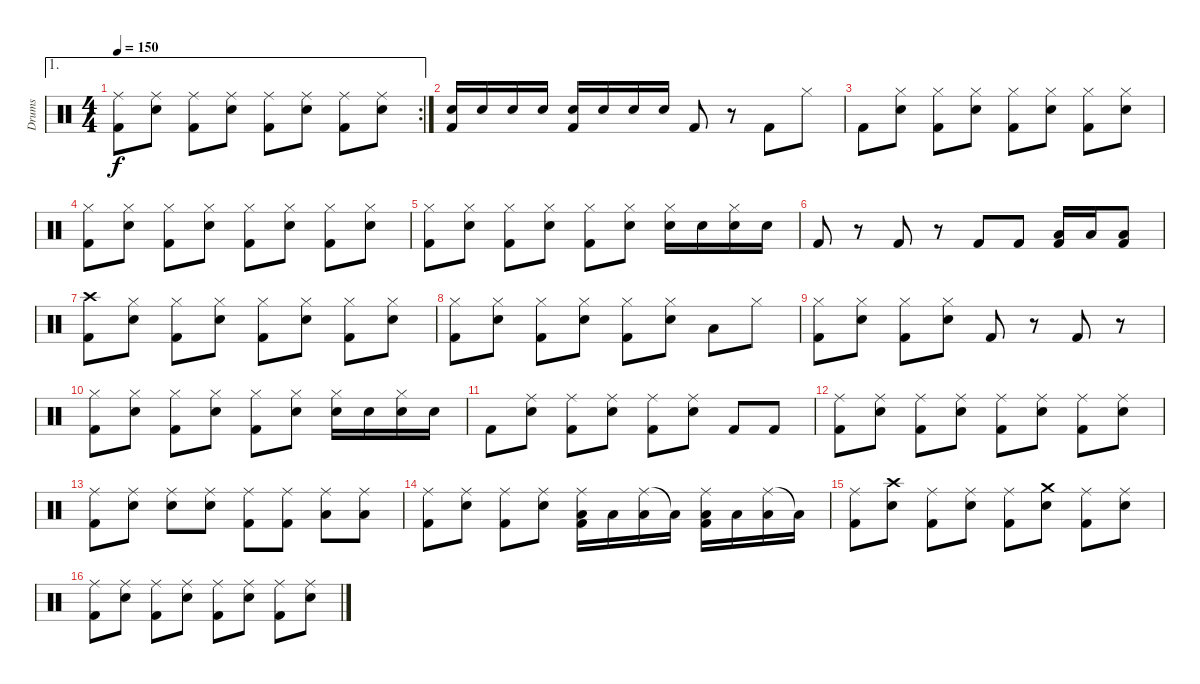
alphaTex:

\track ("Drums" "Drums") {instrument percussion}
\staff {score}
\articulation defaults
\ae 1
\rc 2
\ts (4 4)
\tempo 150
\clef neutral
\ks c
("Ride (middle)" "Kick (hit) 2").8{dy f} ("Ride (middle)" "Snare (hit) 2").8 ("Ride (middle)" "Kick (hit) 2").8 ("Ride (middle)" "Snare (hit) 2").8 ("Ride (middle)" "Kick (hit) 2").8 ("Ride (middle)" "Snare (hit) 2").8 ("Ride (middle)" "Kick (hit) 2").8 ("Ride (middle)" "Snare (hit) 2").8 |
("Snare (hit) 2" "Kick (hit) 2").16 "Snare (hit) 2".16 "Snare (hit) 2".16 "Snare (hit) 2".16 ("Snare (hit) 2" "Kick (hit) 2").16 "Snare (hit) 2".16 "Snare (hit) 2".16 "Snare (hit) 2".16 "Kick (hit) 2".8 r.8 "Kick (hit) 2".8 "Hi-Hat (closed)".8 |
"Kick (hit) 2".8 ("Hi-Hat (closed)" "Snare (hit) 2").8 ("Hi-Hat (closed)" "Kick (hit) 2").8 ("Hi-Hat (closed)" "Snare (hit) 2").8 ("Hi-Hat (closed)" "Kick (hit) 2").8 ("Hi-Hat (closed)" "Snare (hit) 2").8 ("Hi-Hat (closed)" "Kick (hit) 2").8 ("Hi-Hat (closed)" "Snare (hit) 2").8 |
("Hi-Hat (closed)" "Kick (hit) 2").8 ("Hi-Hat (closed)" "Snare (hit) 2").8 ("Hi-Hat (closed)" "Kick (hit) 2").8 ("Hi-Hat (closed)" "Snare (hit) 2").8 ("Hi-Hat (closed)" "Kick (hit) 2").8 ("Hi-Hat (closed)" "Snare (hit) 2").8 ("Hi-Hat (closed)" "Kick (hit) 2").8 ("Hi-Hat (closed)" "Snare (hit) 2").8 |
("Hi-Hat (closed)" "Kick (hit) 2").8 ("Hi-Hat (closed)" "Snare (hit) 2").8 ("Hi-Hat (closed)" "Kick (hit) 2").8 ("Hi-Hat (closed)" "Snare (hit) 2").8 ("Hi-Hat (closed)" "Kick (hit) 2").8 ("Hi-Hat (closed)" "Snare (hit) 2").8 ("Hi-Hat (closed)" "Snare (hit) 2").16 "Snare (hit) 2".16 ("Hi-Hat (closed)" "Snare (hit) 2").16 "Snare (hit) 2".16 |
"Kick (hit) 2".8 r.8 "Kick (hit) 2".8 r.8 "Kick (hit) 2".8 "Kick (hit) 2".8 ("Low Floor Tom (hit)" "Kick (hit) 2").16 "Low Floor Tom (hit)".16 ("Low Floor Tom (hit)" "Kick (hit) 2").8 |
("Crash high (hit)" "Kick (hit) 2").8 ("Hi-Hat (closed)" "Snare (hit) 2").8 ("Hi-Hat (closed)" "Kick (hit) 2").8 ("Hi-Hat (closed)" "Snare (hit) 2").8 ("Hi-Hat (closed)" "Kick (hit) 2").8 ("Hi-Hat (closed)" "Snare (hit) 2").8 ("Hi-Hat (closed)" "Kick (hit) 2").8 ("Hi-Hat (closed)" "Snare (hit) 2").8 |
("Hi-Hat (closed)" "Kick (hit) 2").8 ("Hi-Hat (closed)" "Snare (hit) 2").8 ("Hi-Hat (closed)" "Kick (hit) 2").8 ("Hi-Hat (closed)" "Snare (hit) 2").8 ("Hi-Hat (closed)" "Kick (hit) 2").8 ("Hi-Hat (closed)" "Snare (hit) 2").8 "Low Floor Tom (hit)".8 "Hi-Hat (closed)".8 |
("Hi-Hat (closed)" "Kick (hit) 2").8 ("Hi-Hat (closed)" "Snare (hit) 2").8 ("Hi-Hat (closed)" "Kick (hit) 2").8 ("Hi-Hat (closed)" "Snare (hit) 2").8 "Kick (hit) 2".8 r.8 "Kick (hit) 2".8 r.8 |
("Hi-Hat (closed)" "Kick (hit) 2").8 ("Hi-Hat (closed)" "Snare (hit) 2").8 ("Hi-Hat (closed)" "Kick (hit) 2").8 ("Hi-Hat (closed)" "Snare (hit) 2").8 ("Hi-Hat (closed)" "Kick (hit) 2").8 ("Hi-Hat (closed)" "Snare (hit) 2").8 ("Hi-Hat (closed)" "Snare (hit) 2").16 "Snare (hit) 2".16 ("Hi-Hat (closed)" "Snare (hit) 2").16 "Snare (hit) 2".16 |
"Kick (hit) 2".8 ("Ride (middle)" "Snare (hit) 2").8 ("Ride (middle)" "Kick (hit) 2").8 ("Ride (middle)" "Snare (hit) 2").8 ("Ride (middle)" "Kick (hit) 2").8 ("Ride (middle)" "Snare (hit) 2").8 "Kick (hit) 2".8 "Kick (hit) 2".8 |
("Ride (middle)" "Kick (hit) 2").8 ("Ride (middle)" "Snare (hit) 2").8 ("Ride (middle)" "Kick (hit) 2").8 ("Ride (middle)" "Snare (hit) 2").8 ("Ride (middle)" "Kick (hit) 2").8 ("Ride (middle)" "Snare (hit) 2").8 ("Ride (middle)" "Kick (hit) 2").8 ("Ride (middle)" "Snare (hit) 2").8 |
("Ride (middle)" "Kick (hit) 2").8 ("Ride (middle)" "Snare (hit) 2").8 ("Ride (middle)" "Snare (hit) 2").8 ("Ride (middle)" "Snare (hit) 2").8 ("Ride (middle)" "Kick (hit) 2").8 ("Ride (middle)" "Kick (hit) 2").8 ("Ride (middle)" "Low Floor Tom (hit)").8 ("Ride (middle)" "Low Floor Tom (hit)").8 |
("Ride (middle)" "Kick (hit) 2").8 ("Ride (middle)" "Snare (hit) 2").8 ("Ride (middle)" "Kick (hit) 2").8 ("Ride (middle)" "Snare (hit) 2").8 ("Ride (middle)" "Low Tom (hit)" "Kick (hit) 2").16 "Low Tom (hit)".16 ("Ride (middle)" "Low Tom (hit)").16 "Low Tom (hit)"{t}.16 ("Ride (middle)" "Low Floor Tom (hit)" "Kick (hit) 2").16 "Low Floor Tom (hit)".16 ("Ride (middle)" "Low Floor Tom (hit)").16 "Low Floor Tom (hit)"{t}.16 |
("Ride (middle)" "Kick (hit) 2").8 ("Crash high (hit)" "Snare (hit) 2").8 ("Ride (middle)" "Kick (hit) 2").8 ("Ride (middle)" "Snare (hit) 2").8 ("Ride (middle)" "Kick (hit) 2").8 ("Crash medium (hit)" "Snare (hit) 2").8 ("Ride (middle)" "Kick (hit) 2").8 ("Ride (middle)" "Snare (hit) 2").8 |
("Ride (middle)" "Kick (hit) 2").8 ("Ride (middle)" "Snare (hit) 2").8 ("Ride (middle)" "Kick (hit) 2").8 ("Ride (middle)" "Snare (hit) 2").8 ("Ride (middle)" "Kick (hit) 2").8 ("Ride (middle)" "Snare (hit) 2").8 ("Ride (middle)" "Kick (hit) 2").8 ("Ride (middle)" "Snare (hit) 2").8
